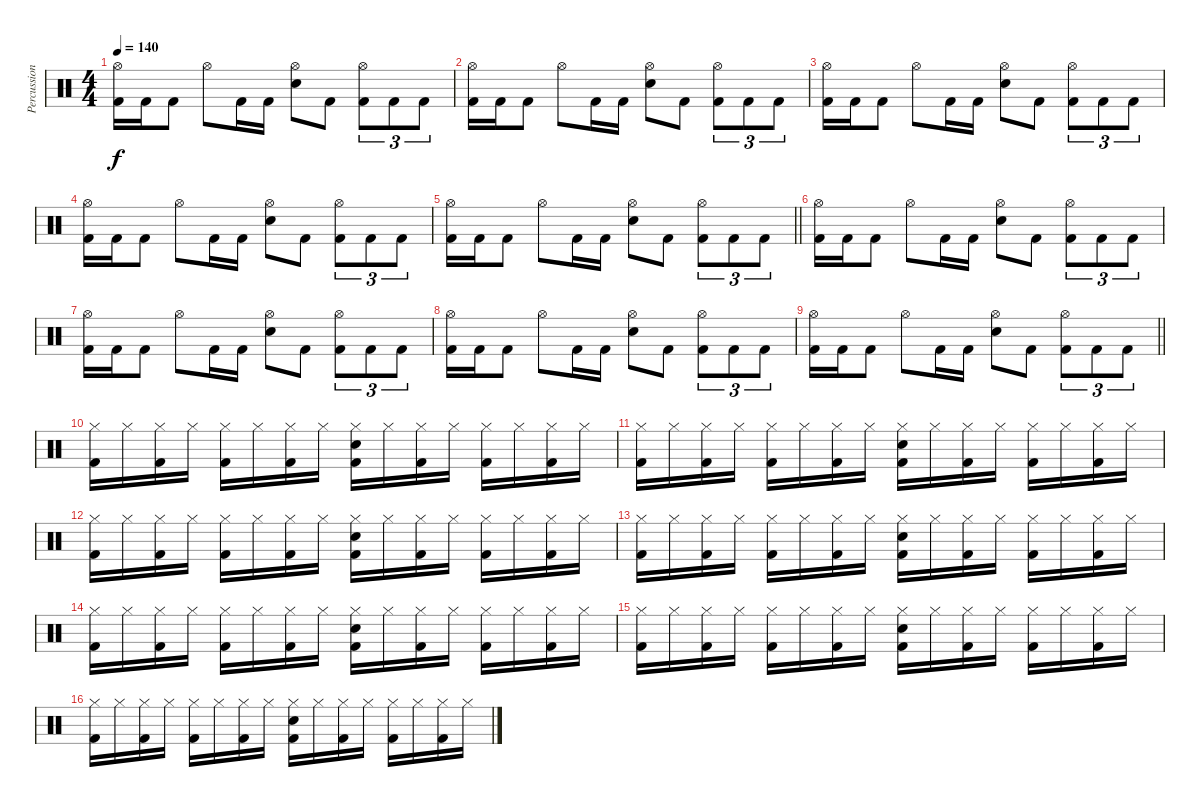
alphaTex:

\track ("Percussion" "Percussion") {instrument percussion}
\staff {score}
\articulation defaults
\ts (4 4)
\tempo 140
\clef neutral
\ks c
("Hi-Hat (open)" "Kick (hit) 2").16{dy f} "Kick (hit) 2".16 "Kick (hit) 2".8 "Hi-Hat (open)".8 "Kick (hit) 2".16 "Kick (hit) 2".16 ("Hi-Hat (open)" "Electric Snare (hit)").8 "Kick (hit) 2".8 ("Hi-Hat (open)" "Kick (hit) 2").8{tu (3 2)} "Kick (hit) 2".8{tu (3 2)} "Kick (hit) 2".8{tu (3 2)} |
("Hi-Hat (open)" "Kick (hit) 2").16 "Kick (hit) 2".16 "Kick (hit) 2".8 "Hi-Hat (open)".8 "Kick (hit) 2".16 "Kick (hit) 2".16 ("Hi-Hat (open)" "Electric Snare (hit)").8 "Kick (hit) 2".8 ("Hi-Hat (open)" "Kick (hit) 2").8{tu (3 2)} "Kick (hit) 2".8{tu (3 2)} "Kick (hit) 2".8{tu (3 2)} |
("Hi-Hat (open)" "Kick (hit) 2").16 "Kick (hit) 2".16 "Kick (hit) 2".8 "Hi-Hat (open)".8 "Kick (hit) 2".16 "Kick (hit) 2".16 ("Hi-Hat (open)" "Electric Snare (hit)").8 "Kick (hit) 2".8 ("Hi-Hat (open)" "Kick (hit) 2").8{tu (3 2)} "Kick (hit) 2".8{tu (3 2)} "Kick (hit) 2".8{tu (3 2)} |
("Hi-Hat (open)" "Kick (hit) 2").16 "Kick (hit) 2".16 "Kick (hit) 2".8 "Hi-Hat (open)".8 "Kick (hit) 2".16 "Kick (hit) 2".16 ("Hi-Hat (open)" "Electric Snare (hit)").8 "Kick (hit) 2".8 ("Hi-Hat (open)" "Kick (hit) 2").8{tu (3 2)} "Kick (hit) 2".8{tu (3 2)} "Kick (hit) 2".8{tu (3 2)} |
\barLineRight lightlight
("Hi-Hat (open)" "Kick (hit) 2").16 "Kick (hit) 2".16 "Kick (hit) 2".8 "Hi-Hat (open)".8 "Kick (hit) 2".16 "Kick (hit) 2".16 ("Hi-Hat (open)" "Electric Snare (hit)").8 "Kick (hit) 2".8 ("Hi-Hat (open)" "Kick (hit) 2").8{tu (3 2)} "Kick (hit) 2".8{tu (3 2)} "Kick (hit) 2".8{tu (3 2)} |
\section ("" "")
("Hi-Hat (open)" "Kick (hit) 2").16 "Kick (hit) 2".16 "Kick (hit) 2".8 "Hi-Hat (open)".8 "Kick (hit) 2".16 "Kick (hit) 2".16 ("Hi-Hat (open)" "Electric Snare (hit)").8 "Kick (hit) 2".8 ("Hi-Hat (open)" "Kick (hit) 2").8{tu (3 2)} "Kick (hit) 2".8{tu (3 2)} "Kick (hit) 2".8{tu (3 2)} |
("Hi-Hat (open)" "Kick (hit) 2").16 "Kick (hit) 2".16 "Kick (hit) 2".8 "Hi-Hat (open)".8 "Kick (hit) 2".16 "Kick (hit) 2".16 ("Hi-Hat (open)" "Electric Snare (hit)").8 "Kick (hit) 2".8 ("Hi-Hat (open)" "Kick (hit) 2").8{tu (3 2)} "Kick (hit) 2".8{tu (3 2)} "Kick (hit) 2".8{tu (3 2)} |
("Hi-Hat (open)" "Kick (hit) 2").16 "Kick (hit) 2".16 "Kick (hit) 2".8 "Hi-Hat (open)".8 "Kick (hit) 2".16 "Kick (hit) 2".16 ("Hi-Hat (open)" "Electric Snare (hit)").8 "Kick (hit) 2".8 ("Hi-Hat (open)" "Kick (hit) 2").8{tu (3 2)} "Kick (hit) 2".8{tu (3 2)} "Kick (hit) 2".8{tu (3 2)} |
\barLineRight lightlight
("Hi-Hat (open)" "Kick (hit) 2").16 "Kick (hit) 2".16 "Kick (hit) 2".8 "Hi-Hat (open)".8 "Kick (hit) 2".16 "Kick (hit) 2".16 ("Hi-Hat (open)" "Electric Snare (hit)").8 "Kick (hit) 2".8 ("Hi-Hat (open)" "Kick (hit) 2").8{tu (3 2)} "Kick (hit) 2".8{tu (3 2)} "Kick (hit) 2".8{tu (3 2)} |
\section ("" "")
("Hi-Hat (closed)" "Kick (hit) 2").16 "Hi-Hat (closed)".16 ("Hi-Hat (closed)" "Kick (hit) 2").16 "Hi-Hat (closed)".16 ("Hi-Hat (closed)" "Kick (hit) 2").16 "Hi-Hat (closed)".16 ("Hi-Hat (closed)" "Kick (hit) 2").16 "Hi-Hat (closed)".16 ("Hi-Hat (closed)" "Electric Snare (hit)" "Kick (hit) 2").16 "Hi-Hat (closed)".16 ("Hi-Hat (closed)" "Kick (hit) 2").16 "Hi-Hat (closed)".16 ("Hi-Hat (closed)" "Kick (hit) 2").16 "Hi-Hat (closed)".16 ("Hi-Hat (closed)" "Kick (hit) 2").16 "Hi-Hat (closed)".16 |
("Hi-Hat (closed)" "Kick (hit) 2").16 "Hi-Hat (closed)".16 ("Hi-Hat (closed)" "Kick (hit) 2").16 "Hi-Hat (closed)".16 ("Hi-Hat (closed)" "Kick (hit) 2").16 "Hi-Hat (closed)".16 ("Hi-Hat (closed)" "Kick (hit) 2").16 "Hi-Hat (closed)".16 ("Hi-Hat (closed)" "Electric Snare (hit)" "Kick (hit) 2").16 "Hi-Hat (closed)".16 ("Hi-Hat (closed)" "Kick (hit) 2").16 "Hi-Hat (closed)".16 ("Hi-Hat (closed)" "Kick (hit) 2").16 "Hi-Hat (closed)".16 ("Hi-Hat (closed)" "Kick (hit) 2").16 "Hi-Hat (closed)".16 |
("Hi-Hat (closed)" "Kick (hit) 2").16 "Hi-Hat (closed)".16 ("Hi-Hat (closed)" "Kick (hit) 2").16 "Hi-Hat (closed)".16 ("Hi-Hat (closed)" "Kick (hit) 2").16 "Hi-Hat (closed)".16 ("Hi-Hat (closed)" "Kick (hit) 2").16 "Hi-Hat (closed)".16 ("Hi-Hat (closed)" "Electric Snare (hit)" "Kick (hit) 2").16 "Hi-Hat (closed)".16 ("Hi-Hat (closed)" "Kick (hit) 2").16 "Hi-Hat (closed)".16 ("Hi-Hat (closed)" "Kick (hit) 2").16 "Hi-Hat (closed)".16 ("Hi-Hat (closed)" "Kick (hit) 2").16 "Hi-Hat (closed)".16 |
("Hi-Hat (closed)" "Kick (hit) 2").16 "Hi-Hat (closed)".16 ("Hi-Hat (closed)" "Kick (hit) 2").16 "Hi-Hat (closed)".16 ("Hi-Hat (closed)" "Kick (hit) 2").16 "Hi-Hat (closed)".16 ("Hi-Hat (closed)" "Kick (hit) 2").16 "Hi-Hat (closed)".16 ("Hi-Hat (closed)" "Electric Snare (hit)" "Kick (hit) 2").16 "Hi-Hat (closed)".16 ("Hi-Hat (closed)" "Kick (hit) 2").16 "Hi-Hat (closed)".16 ("Hi-Hat (closed)" "Kick (hit) 2").16 "Hi-Hat (closed)".16 ("Hi-Hat (closed)" "Kick (hit) 2").16 "Hi-Hat (closed)".16 |
("Hi-Hat (closed)" "Kick (hit) 2").16 "Hi-Hat (closed)".16 ("Hi-Hat (closed)" "Kick (hit) 2").16 "Hi-Hat (closed)".16 ("Hi-Hat (closed)" "Kick (hit) 2").16 "Hi-Hat (closed)".16 ("Hi-Hat (closed)" "Kick (hit) 2").16 "Hi-Hat (closed)".16 ("Hi-Hat (closed)" "Electric Snare (hit)" "Kick (hit) 2").16 "Hi-Hat (closed)".16 ("Hi-Hat (closed)" "Kick (hit) 2").16 "Hi-Hat (closed)".16 ("Hi-Hat (closed)" "Kick (hit) 2").16 "Hi-Hat (closed)".16 ("Hi-Hat (closed)" "Kick (hit) 2").16 "Hi-Hat (closed)".16 |
("Hi-Hat (closed)" "Kick (hit) 2").16 "Hi-Hat (closed)".16 ("Hi-Hat (closed)" "Kick (hit) 2").16 "Hi-Hat (closed)".16 ("Hi-Hat (closed)" "Kick (hit) 2").16 "Hi-Hat (closed)".16 ("Hi-Hat (closed)" "Kick (hit) 2").16 "Hi-Hat (closed)".16 ("Hi-Hat (closed)" "Electric Snare (hit)" "Kick (hit) 2").16 "Hi-Hat (closed)".16 ("Hi-Hat (closed)" "Kick (hit) 2").16 "Hi-Hat (closed)".16 ("Hi-Hat (closed)" "Kick (hit) 2").16 "Hi-Hat (closed)".16 ("Hi-Hat (closed)" "Kick (hit) 2").16 "Hi-Hat (closed)".16 |
("Hi-Hat (closed)" "Kick (hit) 2").16 "Hi-Hat (closed)".16 ("Hi-Hat (closed)" "Kick (hit) 2").16 "Hi-Hat (closed)".16 ("Hi-Hat (closed)" "Kick (hit) 2").16 "Hi-Hat (closed)".16 ("Hi-Hat (closed)" "Kick (hit) 2").16 "Hi-Hat (closed)".16 ("Hi-Hat (closed)" "Electric Snare (hit)" "Kick (hit) 2").16 "Hi-Hat (closed)".16 ("Hi-Hat (closed)" "Kick (hit) 2").16 "Hi-Hat (closed)".16 ("Hi-Hat (closed)" "Kick (hit) 2").16 "Hi-Hat (closed)".16 ("Hi-Hat (closed)" "Kick (hit) 2").16 "Hi-Hat (closed)".16
